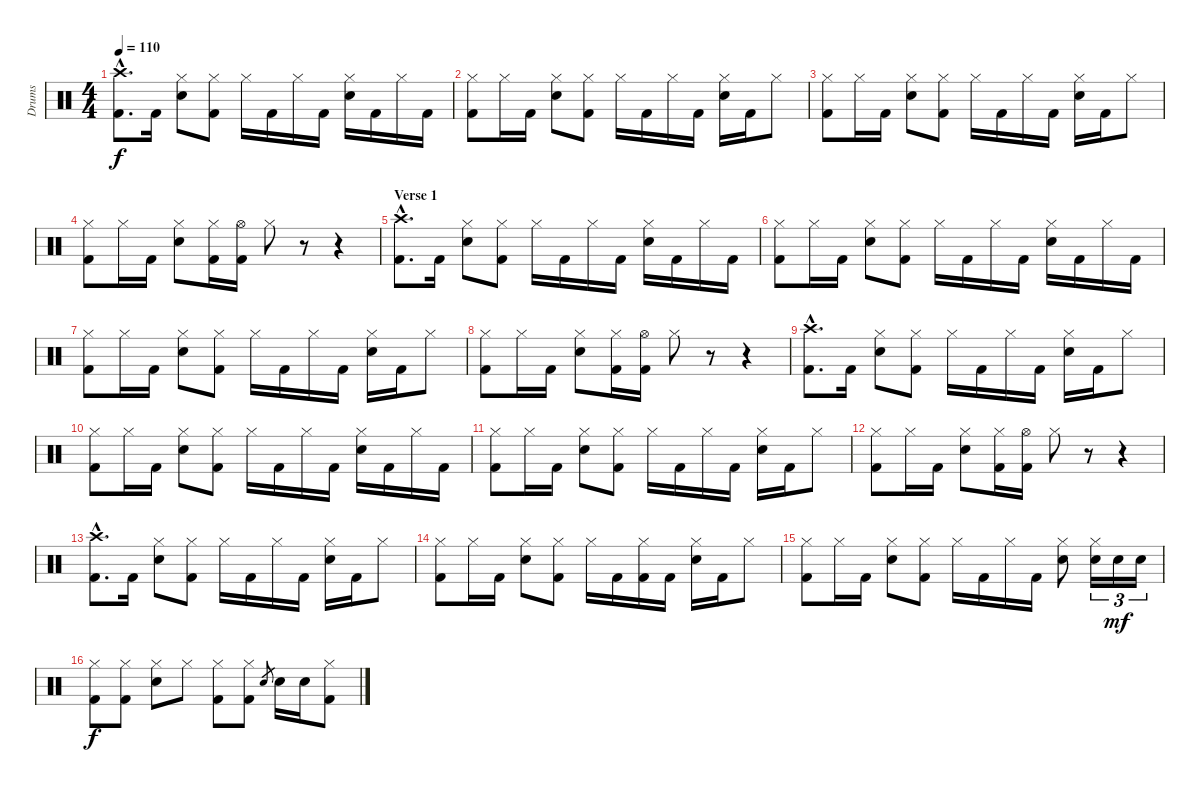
\track ("Drums" "Drums") {instrument percussion}
\staff {score}
\articulation defaults
\ts (4 4)
\tempo 110
\clef neutral
\ks c
("Crash high (hit)"{hac} "Kick (hit) 2"{hac}).8{d dy f} "Kick (hit) 2".16 ("Hi-Hat (closed)" "Electric Snare (hit)").8 ("Hi-Hat (closed)" "Kick (hit) 2").8 "Hi-Hat (closed)".16 "Kick (hit) 2".16 "Hi-Hat (closed)".16 "Kick (hit) 2".16 ("Hi-Hat (closed)" "Electric Snare (hit)").16 "Kick (hit) 2".16 "Hi-Hat (closed)".16 "Kick (hit) 2".16 |
("Hi-Hat (closed)" "Kick (hit) 2").8 "Hi-Hat (closed)".16 "Kick (hit) 2".16 ("Hi-Hat (closed)" "Electric Snare (hit)").8 ("Hi-Hat (closed)" "Kick (hit) 2").8 "Hi-Hat (closed)".16 "Kick (hit) 2".16 "Hi-Hat (closed)".16 "Kick (hit) 2".16 ("Hi-Hat (closed)" "Electric Snare (hit)").16 "Kick (hit) 2".16 "Hi-Hat (closed)".8 |
("Hi-Hat (closed)" "Kick (hit) 2").8 "Hi-Hat (closed)".16 "Kick (hit) 2".16 ("Hi-Hat (closed)" "Electric Snare (hit)").8 ("Hi-Hat (closed)" "Kick (hit) 2").8 "Hi-Hat (closed)".16 "Kick (hit) 2".16 "Hi-Hat (closed)".16 "Kick (hit) 2".16 ("Hi-Hat (closed)" "Electric Snare (hit)").16 "Kick (hit) 2".16 "Hi-Hat (closed)".8 |
("Hi-Hat (closed)" "Kick (hit) 2").8 "Hi-Hat (closed)".16 "Kick (hit) 2".16 ("Hi-Hat (closed)" "Electric Snare (hit)").8 ("Hi-Hat (closed)" "Kick (hit) 2").16 ("Hi-Hat (open)" "Kick (hit) 2").16 "Hi-Hat (closed)".8 r.8 r.4 |
\section ("" "Verse 1")
("Crash high (hit)"{hac} "Kick (hit) 2"{hac}).8{d} "Kick (hit) 2".16 ("Hi-Hat (closed)" "Electric Snare (hit)").8 ("Hi-Hat (closed)" "Kick (hit) 2").8 "Hi-Hat (closed)".16 "Kick (hit) 2".16 "Hi-Hat (closed)".16 "Kick (hit) 2".16 ("Hi-Hat (closed)" "Electric Snare (hit)").16 "Kick (hit) 2".16 "Hi-Hat (closed)".16 "Kick (hit) 2".16 |
("Hi-Hat (closed)" "Kick (hit) 2").8 "Hi-Hat (closed)".16 "Kick (hit) 2".16 ("Hi-Hat (closed)" "Electric Snare (hit)").8 ("Hi-Hat (closed)" "Kick (hit) 2").8 "Hi-Hat (closed)".16 "Kick (hit) 2".16 "Hi-Hat (closed)".16 "Kick (hit) 2".16 ("Hi-Hat (closed)" "Electric Snare (hit)").16 "Kick (hit) 2".16 "Hi-Hat (closed)".16 "Kick (hit) 2".16 |
("Hi-Hat (closed)" "Kick (hit) 2").8 "Hi-Hat (closed)".16 "Kick (hit) 2".16 ("Hi-Hat (closed)" "Electric Snare (hit)").8 ("Hi-Hat (closed)" "Kick (hit) 2").8 "Hi-Hat (closed)".16 "Kick (hit) 2".16 "Hi-Hat (closed)".16 "Kick (hit) 2".16 ("Hi-Hat (closed)" "Electric Snare (hit)").16 "Kick (hit) 2".16 "Hi-Hat (closed)".8 |
("Hi-Hat (closed)" "Kick (hit) 2").8 "Hi-Hat (closed)".16 "Kick (hit) 2".16 ("Hi-Hat (closed)" "Electric Snare (hit)").8 ("Hi-Hat (closed)" "Kick (hit) 2").16 ("Hi-Hat (open)" "Kick (hit) 2").16 "Hi-Hat (closed)".8 r.8 r.4 |
("Crash high (hit)"{hac} "Kick (hit) 2"{hac}).8{d} "Kick (hit) 2".16 ("Hi-Hat (closed)" "Electric Snare (hit)").8 ("Hi-Hat (closed)" "Kick (hit) 2").8 "Hi-Hat (closed)".16 "Kick (hit) 2".16 "Hi-Hat (closed)".16 "Kick (hit) 2".16 ("Hi-Hat (closed)" "Electric Snare (hit)").16 "Kick (hit) 2".16 "Hi-Hat (closed)".8 |
("Hi-Hat (closed)" "Kick (hit) 2").8 "Hi-Hat (closed)".16 "Kick (hit) 2".16 ("Hi-Hat (closed)" "Electric Snare (hit)").8 ("Hi-Hat (closed)" "Kick (hit) 2").8 "Hi-Hat (closed)".16 "Kick (hit) 2".16 "Hi-Hat (closed)".16 "Kick (hit) 2".16 ("Hi-Hat (closed)" "Electric Snare (hit)").16 "Kick (hit) 2".16 "Hi-Hat (closed)".16 "Kick (hit) 2".16 |
("Hi-Hat (closed)" "Kick (hit) 2").8 "Hi-Hat (closed)".16 "Kick (hit) 2".16 ("Hi-Hat (closed)" "Electric Snare (hit)").8 ("Hi-Hat (closed)" "Kick (hit) 2").8 "Hi-Hat (closed)".16 "Kick (hit) 2".16 "Hi-Hat (closed)".16 "Kick (hit) 2".16 ("Hi-Hat (closed)" "Electric Snare (hit)").16 "Kick (hit) 2".16 "Hi-Hat (closed)".8 |
("Hi-Hat (closed)" "Kick (hit) 2").8 "Hi-Hat (closed)".16 "Kick (hit) 2".16 ("Hi-Hat (closed)" "Electric Snare (hit)").8 ("Hi-Hat (closed)" "Kick (hit) 2").16 ("Hi-Hat (open)" "Kick (hit) 2").16 "Hi-Hat (closed)".8 r.8 r.4 |
("Crash high (hit)"{hac} "Kick (hit) 2"{hac}).8{d} "Kick (hit) 2".16 ("Hi-Hat (closed)" "Electric Snare (hit)").8 ("Hi-Hat (closed)" "Kick (hit) 2").8 "Hi-Hat (closed)".16 "Kick (hit) 2".16 "Hi-Hat (closed)".16 "Kick (hit) 2".16 ("Hi-Hat (closed)" "Electric Snare (hit)").16 "Kick (hit) 2".16 "Hi-Hat (closed)".8 |
("Hi-Hat (closed)" "Kick (hit) 2").8 "Hi-Hat (closed)".16 "Kick (hit) 2".16 ("Hi-Hat (closed)" "Electric Snare (hit)").8 ("Hi-Hat (closed)" "Kick (hit) 2").8 "Hi-Hat (closed)".16 "Kick (hit) 2".16 ("Hi-Hat (closed)" "Kick (hit) 2").16 "Kick (hit) 2".16 ("Hi-Hat (closed)" "Electric Snare (hit)").16 "Kick (hit) 2".16 "Hi-Hat (closed)".8 |
("Hi-Hat (closed)" "Kick (hit) 2").8 "Hi-Hat (closed)".16 "Kick (hit) 2".16 ("Hi-Hat (closed)" "Electric Snare (hit)").8 ("Hi-Hat (closed)" "Kick (hit) 2").8 "Hi-Hat (closed)".16 "Kick (hit) 2".16 "Hi-Hat (closed)".16 "Kick (hit) 2".16 ("Hi-Hat (closed)" "Electric Snare (hit)").8 ("Hi-Hat (closed)" "Electric Snare (hit)").16{tu (3 2)} "Electric Snare (hit)".16{tu (3 2) dy mf} "Electric Snare (hit)".16{tu (3 2)} |
("Hi-Hat (closed)" "Kick (hit) 2").8{dy f} ("Hi-Hat (closed)" "Kick (hit) 2").8 ("Hi-Hat (closed)" "Electric Snare (hit)").8 "Hi-Hat (closed)".8 ("Hi-Hat (closed)" "Kick (hit) 2").8 ("Hi-Hat (closed)" "Kick (hit) 2").8 "Electric Snare (hit)".8{gr} "Electric Snare (hit)".16 "Electric Snare (hit)".16 ("Hi-Hat (closed)" "Kick (hit) 2").8
